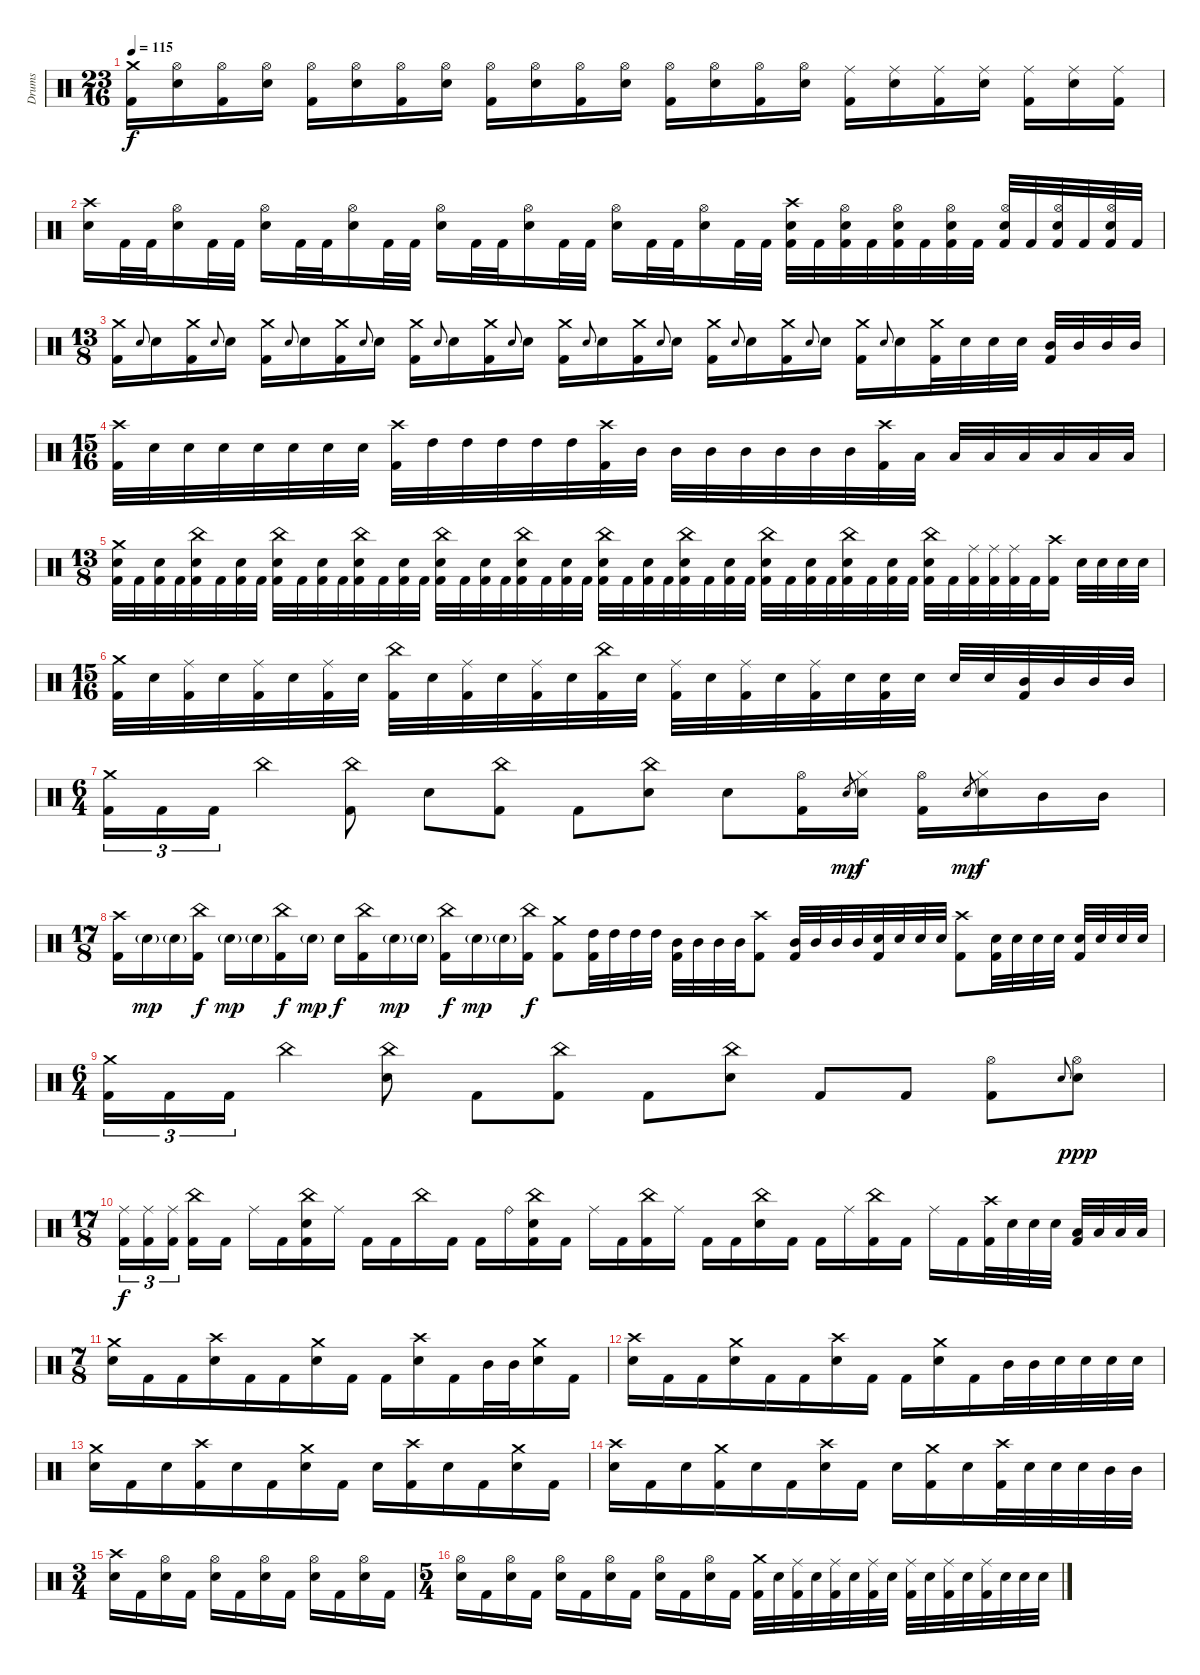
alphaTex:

\track ("Drums" "Drums") {instrument percussion}
\staff {score}
\articulation defaults
\ts (23 16)
\tempo 115
\clef neutral
\ks c
("Crash medium (hit)" "Kick (hit) 2").16{dy f} ("Hi-Hat (open)" "Electric Snare (hit)").16 ("Hi-Hat (open)" "Kick (hit) 2").16 ("Hi-Hat (open)" "Electric Snare (hit)").16 ("Hi-Hat (open)" "Kick (hit) 2").16 ("Hi-Hat (open)" "Electric Snare (hit)").16 ("Hi-Hat (open)" "Kick (hit) 2").16 ("Hi-Hat (open)" "Electric Snare (hit)").16 ("Hi-Hat (open)" "Kick (hit) 2").16 ("Hi-Hat (open)" "Electric Snare (hit)").16 ("Hi-Hat (open)" "Kick (hit) 2").16 ("Hi-Hat (open)" "Electric Snare (hit)").16 ("Hi-Hat (open)" "Kick (hit) 2").16 ("Hi-Hat (open)" "Electric Snare (hit)").16 ("Hi-Hat (open)" "Kick (hit) 2").16 ("Hi-Hat (open)" "Electric Snare (hit)").16 ("Ride (middle)" "Kick (hit) 2").16 ("Ride (middle)" "Electric Snare (hit)").16 ("Ride (middle)" "Kick (hit) 2").16 ("Ride (middle)" "Electric Snare (hit)").16 ("Ride (middle)" "Kick (hit) 2").16 ("Ride (middle)" "Electric Snare (hit)").16 ("Ride (middle)" "Kick (hit) 2").16 |
("Crash high (hit)" "Electric Snare (hit)").16 "Kick (hit) 2".32 "Kick (hit) 2".32 ("Hi-Hat (open)" "Electric Snare (hit)").16 "Kick (hit) 2".32 "Kick (hit) 2".32 ("Hi-Hat (open)" "Electric Snare (hit)").16 "Kick (hit) 2".32 "Kick (hit) 2".32 ("Hi-Hat (open)" "Electric Snare (hit)").16 "Kick (hit) 2".32 "Kick (hit) 2".32 ("Hi-Hat (open)" "Electric Snare (hit)").16 "Kick (hit) 2".32 "Kick (hit) 2".32 ("Hi-Hat (open)" "Electric Snare (hit)").16 "Kick (hit) 2".32 "Kick (hit) 2".32 ("Hi-Hat (open)" "Electric Snare (hit)").16 "Kick (hit) 2".32 "Kick (hit) 2".32 ("Hi-Hat (open)" "Electric Snare (hit)").16 "Kick (hit) 2".32 "Kick (hit) 2".32 ("Crash high (hit)" "Electric Snare (hit)" "Kick (hit) 2").32 "Kick (hit) 2".32 ("Hi-Hat (open)" "Electric Snare (hit)" "Kick (hit) 2").32 "Kick (hit) 2".32 ("Hi-Hat (open)" "Electric Snare (hit)" "Kick (hit) 2").32 "Kick (hit) 2".32 ("Hi-Hat (open)" "Electric Snare (hit)" "Kick (hit) 2").32 "Kick (hit) 2".32 ("Hi-Hat (open)" "Electric Snare (hit)" "Kick (hit) 2").32 "Kick (hit) 2".32 ("Hi-Hat (open)" "Electric Snare (hit)" "Kick (hit) 2").32 "Kick (hit) 2".32 ("Hi-Hat (open)" "Electric Snare (hit)" "Kick (hit) 2").32 "Kick (hit) 2".32 |
\ts (13 8)
("Crash medium (hit)" "Kick (hit) 2").16 "Electric Snare (hit)".8{gr onbeat} "Electric Snare (hit)".16 ("Crash medium (hit)" "Kick (hit) 2").16 "Electric Snare (hit)".8{gr onbeat} "Electric Snare (hit)".16 ("Crash medium (hit)" "Kick (hit) 2").16 "Electric Snare (hit)".8{gr onbeat} "Electric Snare (hit)".16 ("Crash medium (hit)" "Kick (hit) 2").16 "Electric Snare (hit)".8{gr onbeat} "Electric Snare (hit)".16 ("Crash medium (hit)" "Kick (hit) 2").16 "Electric Snare (hit)".8{gr onbeat} "Electric Snare (hit)".16 ("Crash medium (hit)" "Kick (hit) 2").16 "Electric Snare (hit)".8{gr onbeat} "Electric Snare (hit)".16 ("Crash medium (hit)" "Kick (hit) 2").16 "Electric Snare (hit)".8{gr onbeat} "Electric Snare (hit)".16 ("Crash medium (hit)" "Kick (hit) 2").16 "Electric Snare (hit)".8{gr onbeat} "Electric Snare (hit)".16 ("Crash medium (hit)" "Kick (hit) 2").16 "Electric Snare (hit)".8{gr onbeat} "Electric Snare (hit)".16 ("Crash medium (hit)" "Kick (hit) 2").16 "Electric Snare (hit)".8{gr onbeat} "Electric Snare (hit)".16 ("Crash medium (hit)" "Kick (hit) 2").16 "Electric Snare (hit)".8{gr onbeat} "Electric Snare (hit)".16 ("Crash medium (hit)" "Kick (hit) 2").32 "Electric Snare (hit)".32 "Electric Snare (hit)".32 "Electric Snare (hit)".32 ("Mid Tom (hit)" "Kick (hit) 2").32 "Mid Tom (hit)".32 "Mid Tom (hit)".32 "Mid Tom (hit)".32 |
\ts (15 16)
("Crash high (hit)" "Kick (hit) 2").32 "Electric Snare (hit)".32 "Electric Snare (hit)".32 "Electric Snare (hit)".32 "Electric Snare (hit)".32 "Electric Snare (hit)".32 "Electric Snare (hit)".32 "Electric Snare (hit)".32 ("Crash high (hit)" "Kick (hit) 2").32 "High Tom (hit)".32 "High Tom (hit)".32 "High Tom (hit)".32 "High Tom (hit)".32 "High Tom (hit)".32 ("Crash high (hit)" "Kick (hit) 2").32 "Mid Tom (hit)".32 "Mid Tom (hit)".32 "Mid Tom (hit)".32 "Mid Tom (hit)".32 "Mid Tom (hit)".32 "Mid Tom (hit)".32 "Mid Tom (hit)".32 ("Crash high (hit)" "Kick (hit) 2").32 "Low Tom (hit)".32 "Low Tom (hit)".32 "Low Tom (hit)".32 "Low Tom (hit)".32 "Low Tom (hit)".32 "Low Tom (hit)".32 "Low Tom (hit)".32 |
\ts (13 8)
("Crash medium (hit)" "Electric Snare (hit)" "Kick (hit) 2").32 "Kick (hit) 2".32 ("Electric Snare (hit)" "Kick (hit) 2").32 "Kick (hit) 2".32 ("China (hit)" "Electric Snare (hit)" "Kick (hit) 2").32 "Kick (hit) 2".32 ("Electric Snare (hit)" "Kick (hit) 2").32 "Kick (hit) 2".32 ("China (hit)" "Electric Snare (hit)" "Kick (hit) 2").32 "Kick (hit) 2".32 ("Electric Snare (hit)" "Kick (hit) 2").32 "Kick (hit) 2".32 ("China (hit)" "Electric Snare (hit)" "Kick (hit) 2").32 "Kick (hit) 2".32 ("Electric Snare (hit)" "Kick (hit) 2").32 "Kick (hit) 2".32 ("China (hit)" "Electric Snare (hit)" "Kick (hit) 2").32 "Kick (hit) 2".32 ("Electric Snare (hit)" "Kick (hit) 2").32 "Kick (hit) 2".32 ("China (hit)" "Electric Snare (hit)" "Kick (hit) 2").32 "Kick (hit) 2".32 ("Electric Snare (hit)" "Kick (hit) 2").32 "Kick (hit) 2".32 ("China (hit)" "Electric Snare (hit)" "Kick (hit) 2").32 "Kick (hit) 2".32 ("Electric Snare (hit)" "Kick (hit) 2").32 "Kick (hit) 2".32 ("China (hit)" "Electric Snare (hit)" "Kick (hit) 2").32 "Kick (hit) 2".32 ("Electric Snare (hit)" "Kick (hit) 2").32 "Kick (hit) 2".32 ("China (hit)" "Electric Snare (hit)" "Kick (hit) 2").32 "Kick (hit) 2".32 ("Electric Snare (hit)" "Kick (hit) 2").32 "Kick (hit) 2".32 ("China (hit)" "Electric Snare (hit)" "Kick (hit) 2").32 "Kick (hit) 2".32 ("Electric Snare (hit)" "Kick (hit) 2").32 "Kick (hit) 2".32 ("China (hit)" "Electric Snare (hit)" "Kick (hit) 2").32 "Kick (hit) 2".32 ("Ride (middle)" "Kick (hit) 2").32 ("Ride (middle)" "Kick (hit) 2").32 ("Ride (middle)" "Kick (hit) 2").32 "Kick (hit) 2".32 ("Crash high (hit)" "Kick (hit) 2").16 "Electric Snare (hit)".32 "Electric Snare (hit)".32 "Electric Snare (hit)".32 "Electric Snare (hit)".32 |
\ts (15 16)
("Crash medium (hit)" "Kick (hit) 2").32 "Electric Snare (hit)".32 ("Ride (middle)" "Kick (hit) 2").32 "Electric Snare (hit)".32 ("Ride (middle)" "Kick (hit) 2").32 "Electric Snare (hit)".32 ("Ride (middle)" "Kick (hit) 2").32 "Electric Snare (hit)".32 ("China (hit)" "Kick (hit) 2").32 "Electric Snare (hit)".32 ("Ride (middle)" "Kick (hit) 2").32 "Electric Snare (hit)".32 ("Ride (middle)" "Kick (hit) 2").32 "Electric Snare (hit)".32 ("China (hit)" "Kick (hit) 2").32 "Electric Snare (hit)".32 ("Ride (middle)" "Kick (hit) 2").32 "Electric Snare (hit)".32 ("Ride (middle)" "Kick (hit) 2").32 "Electric Snare (hit)".32 ("Ride (middle)" "Kick (hit) 2").32 "Electric Snare (hit)".32 ("Electric Snare (hit)" "Kick (hit) 2").32 "Electric Snare (hit)".32 "Electric Snare (hit)".32 "Electric Snare (hit)".32 ("Mid Tom (hit)" "Kick (hit) 2").32 "Mid Tom (hit)".32 "Mid Tom (hit)".32 "Mid Tom (hit)".32 |
\ts (6 4)
("Crash medium (hit)" "Kick (hit) 2").16{tu (3 2)} "Kick (hit) 2".16{tu (3 2)} "Kick (hit) 2".16{tu (3 2)} "China (hit)".4 ("China (hit)" "Kick (hit) 2").8 "Electric Snare (hit)".8 ("China (hit)" "Kick (hit) 2").8 "Kick (hit) 2".8 ("China (hit)" "Electric Snare (hit)").8 "Electric Snare (hit)".8 ("Hi-Hat (open)" "Kick (hit) 2").16 "Electric Snare (hit)".8{gr dy mp} ("Hi-Hat (closed)" "Electric Snare (hit)").16{dy f} ("Hi-Hat (open)" "Kick (hit) 2").16 "Electric Snare (hit)".8{gr dy mp} ("Hi-Hat (closed)" "Electric Snare (hit)").16{dy f} "Mid Tom (hit)".16 "Mid Tom (hit)".16 |
\ts (17 8)
("Crash high (hit)" "Kick (hit) 2").16 "Electric Snare (hit)"{g}.16{dy mp} "Electric Snare (hit)"{g}.16 ("China (hit)" "Kick (hit) 2").16{dy f} "Electric Snare (hit)"{g}.16{dy mp} "Electric Snare (hit)"{g}.16 ("China (hit)" "Kick (hit) 2").16{dy f} "Electric Snare (hit)"{g}.16{dy mp} "Electric Snare (hit)".16{dy f} ("China (hit)" "Kick (hit) 2").16 "Electric Snare (hit)"{g}.16{dy mp} "Electric Snare (hit)"{g}.16 ("China (hit)" "Kick (hit) 2").16{dy f} "Electric Snare (hit)"{g}.16{dy mp} "Electric Snare (hit)"{g}.16 ("China (hit)" "Kick (hit) 2").16{dy f} ("Crash medium (hit)" "Kick (hit) 2").8 ("High Tom (hit)" "Kick (hit) 2").32 "High Tom (hit)".32 "High Tom (hit)".32 "High Tom (hit)".32 ("Mid Tom (hit)" "Kick (hit) 2").32 "Mid Tom (hit)".32 "Mid Tom (hit)".32 "Mid Tom (hit)".32 ("Crash high (hit)" "Kick (hit) 2").8 ("Mid Tom (hit)" "Kick (hit) 2").32 "Mid Tom (hit)".32 "Mid Tom (hit)".32 "Mid Tom (hit)".32 ("Electric Snare (hit)" "Kick (hit) 2").32 "Electric Snare (hit)".32 "Electric Snare (hit)".32 "Electric Snare (hit)".32 ("Crash high (hit)" "Kick (hit) 2").8 ("Electric Snare (hit)" "Kick (hit) 2").32 "Electric Snare (hit)".32 "Electric Snare (hit)".32 "Electric Snare (hit)".32 ("Electric Snare (hit)" "Kick (hit) 2").32 "Electric Snare (hit)".32 "Electric Snare (hit)".32 "Electric Snare (hit)".32 |
\ts (6 4)
("Crash medium (hit)" "Kick (hit) 2").16{tu (3 2)} "Kick (hit) 2".16{tu (3 2)} "Kick (hit) 2".16{tu (3 2)} "China (hit)".4 ("China (hit)" "Electric Snare (hit)").8 "Kick (hit) 2".8 ("China (hit)" "Kick (hit) 2").8 "Kick (hit) 2".8 ("China (hit)" "Electric Snare (hit)").8 "Kick (hit) 2".8 "Kick (hit) 2".8 ("Hi-Hat (open)" "Kick (hit) 2").8 "Electric Snare (hit)".8{gr onbeat} ("Hi-Hat (open)" "Electric Snare (hit)").8{dy ppp} |
\ts (17 8)
("Ride (middle)" "Kick (hit) 2").16{tu (3 2) dy f} ("Ride (middle)" "Kick (hit) 2").16{tu (3 2)} ("Ride (middle)" "Kick (hit) 2").16{tu (3 2)} ("China (hit)" "Kick (hit) 2").16 "Kick (hit) 2".16 "Ride (middle)".16 "Kick (hit) 2".16 ("China (hit)" "Electric Snare (hit)" "Kick (hit) 2").16 "Ride (middle)".16 "Kick (hit) 2".16 "Kick (hit) 2".16 "China (hit)".16 "Kick (hit) 2".16 "Kick (hit) 2".16 "Ride (bell)".16 ("China (hit)" "Electric Snare (hit)" "Kick (hit) 2").16 "Kick (hit) 2".16 "Ride (middle)".16 "Kick (hit) 2".16 ("China (hit)" "Kick (hit) 2").16 "Ride (middle)".16 "Kick (hit) 2".16 "Kick (hit) 2".16 ("China (hit)" "Electric Snare (hit)").16 "Kick (hit) 2".16 "Kick (hit) 2".16 "Ride (middle)".16 ("China (hit)" "Kick (hit) 2").16 "Kick (hit) 2".16 "Ride (middle)".16 "Kick (hit) 2".16 ("Crash high (hit)" "Kick (hit) 2").32 "Electric Snare (hit)".32 "Electric Snare (hit)".32 "Electric Snare (hit)".32 ("Low Tom (hit)" "Kick (hit) 2").32 "Low Tom (hit)".32 "Low Tom (hit)".32 "Low Tom (hit)".32 |
\ts (7 8)
("Crash medium (hit)" "Electric Snare (hit)").16 "Kick (hit) 2".16 "Kick (hit) 2".16 ("Crash high (hit)" "Electric Snare (hit)").16 "Kick (hit) 2".16 "Kick (hit) 2".16 ("Crash medium (hit)" "Electric Snare (hit)").16 "Kick (hit) 2".16 "Kick (hit) 2".16 ("Crash high (hit)" "Electric Snare (hit)").16 "Kick (hit) 2".16 "Mid Tom (hit)".32 "Mid Tom (hit)".32 ("Crash medium (hit)" "Electric Snare (hit)").16 "Kick (hit) 2".16 |
("Crash high (hit)" "Electric Snare (hit)").16 "Kick (hit) 2".16 "Kick (hit) 2".16 ("Crash medium (hit)" "Electric Snare (hit)").16 "Kick (hit) 2".16 "Kick (hit) 2".16 ("Crash high (hit)" "Electric Snare (hit)").16 "Kick (hit) 2".16 "Kick (hit) 2".16 ("Crash medium (hit)" "Electric Snare (hit)").16 "Kick (hit) 2".16 "Mid Tom (hit)".32 "Mid Tom (hit)".32 "Electric Snare (hit)".32 "Electric Snare (hit)".32 "Electric Snare (hit)".32 "Electric Snare (hit)".32 |
("Crash medium (hit)" "Electric Snare (hit)").16 "Kick (hit) 2".16 "Electric Snare (hit)".16 ("Crash high (hit)" "Kick (hit) 2").16 "Electric Snare (hit)".16 "Kick (hit) 2".16 ("Crash medium (hit)" "Electric Snare (hit)").16 "Kick (hit) 2".16 "Electric Snare (hit)".16 ("Crash high (hit)" "Kick (hit) 2").16 "Electric Snare (hit)".16 "Kick (hit) 2".16 ("Crash medium (hit)" "Electric Snare (hit)").16 "Kick (hit) 2".16 |
("Crash high (hit)" "Electric Snare (hit)").16 "Kick (hit) 2".16 "Electric Snare (hit)".16 ("Crash medium (hit)" "Kick (hit) 2").16 "Electric Snare (hit)".16 "Kick (hit) 2".16 ("Crash high (hit)" "Electric Snare (hit)").16 "Kick (hit) 2".16 "Electric Snare (hit)".16 ("Crash medium (hit)" "Kick (hit) 2").16 "Electric Snare (hit)".16 ("Crash high (hit)" "Kick (hit) 2").32 "Electric Snare (hit)".32 "Electric Snare (hit)".32 "Electric Snare (hit)".32 "Mid Tom (hit)".32 "Mid Tom (hit)".32 |
\ts (3 4)
("Crash high (hit)" "Electric Snare (hit)").16 "Kick (hit) 2".16 ("Hi-Hat (open)" "Electric Snare (hit)").16 "Kick (hit) 2".16 ("Hi-Hat (open)" "Electric Snare (hit)").16 "Kick (hit) 2".16 ("Hi-Hat (open)" "Electric Snare (hit)").16 "Kick (hit) 2".16 ("Hi-Hat (open)" "Electric Snare (hit)").16 "Kick (hit) 2".16 ("Hi-Hat (open)" "Electric Snare (hit)").16 "Kick (hit) 2".16 |
\ts (5 4)
("Hi-Hat (open)" "Electric Snare (hit)").16 "Kick (hit) 2".16 ("Hi-Hat (open)" "Electric Snare (hit)").16 "Kick (hit) 2".16 ("Hi-Hat (open)" "Electric Snare (hit)").16 "Kick (hit) 2".16 ("Hi-Hat (open)" "Electric Snare (hit)").16 "Kick (hit) 2".16 ("Hi-Hat (open)" "Electric Snare (hit)").16 "Kick (hit) 2".16 ("Hi-Hat (open)" "Electric Snare (hit)").16 "Kick (hit) 2".16 ("Crash medium (hit)" "Kick (hit) 2").32 "Electric Snare (hit)".32 ("Ride (middle)" "Kick (hit) 2").32 "Electric Snare (hit)".32 ("Ride (middle)" "Kick (hit) 2").32 "Electric Snare (hit)".32 ("Ride (middle)" "Kick (hit) 2").32 "Electric Snare (hit)".32 ("Ride (middle)" "Kick (hit) 2").32 "Electric Snare (hit)".32 ("Ride (middle)" "Kick (hit) 2").32 "Electric Snare (hit)".32 ("Ride (middle)" "Kick (hit) 2").32 "Electric Snare (hit)".32 "Electric Snare (hit)".32 "Electric Snare (hit)".32
